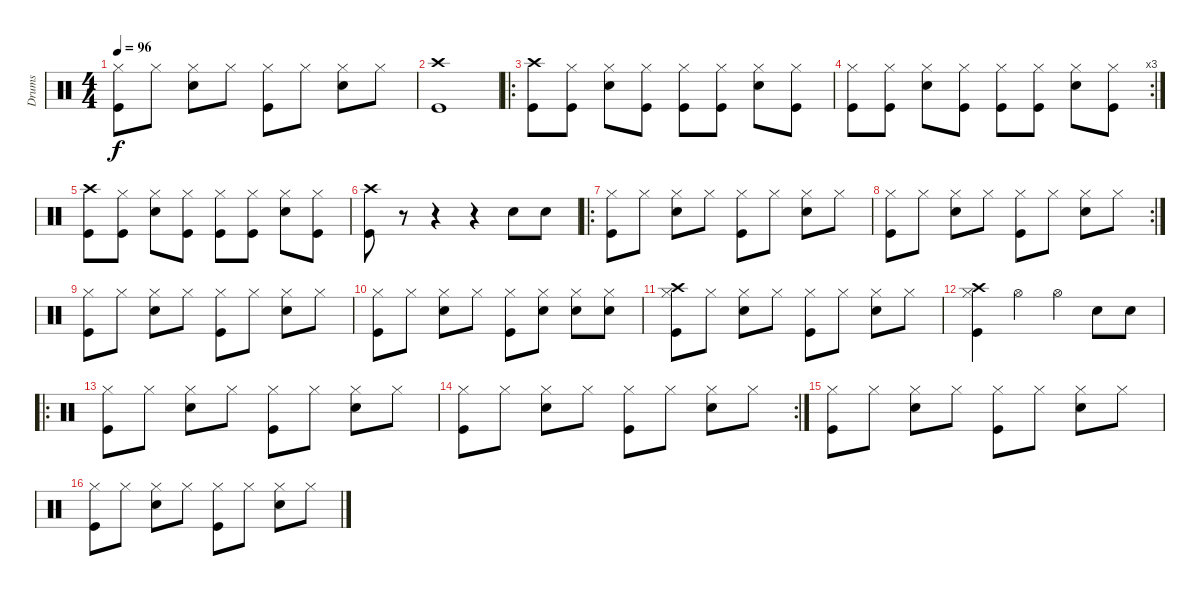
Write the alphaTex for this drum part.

\track ("Drums" "Drums") {instrument percussion}
\staff {score}
\articulation defaults
\ts (4 4)
\tempo 96
\clef neutral
\ks c
("Hi-Hat (closed)" "Kick (hit)").8{dy f} "Hi-Hat (closed)".8 ("Snare (hit) 2" "Hi-Hat (closed)").8 "Hi-Hat (closed)".8 ("Hi-Hat (closed)" "Kick (hit)").8 "Hi-Hat (closed)".8 ("Snare (hit) 2" "Hi-Hat (closed)").8 "Hi-Hat (closed)".8 |
("Crash high (hit)" "Kick (hit)").1 |
\ro
("Crash high (hit)" "Kick (hit)").8 ("Hi-Hat (closed)" "Kick (hit)").8 ("Electric Snare (hit)" "Hi-Hat (closed)").8 ("Hi-Hat (closed)" "Kick (hit)").8 ("Hi-Hat (closed)" "Kick (hit)").8 ("Hi-Hat (closed)" "Kick (hit)").8 ("Electric Snare (hit)" "Hi-Hat (closed)").8 ("Hi-Hat (closed)" "Kick (hit)").8 |
\rc 3
("Hi-Hat (closed)" "Kick (hit)").8 ("Hi-Hat (closed)" "Kick (hit)").8 ("Electric Snare (hit)" "Hi-Hat (closed)").8 ("Hi-Hat (closed)" "Kick (hit)").8 ("Hi-Hat (closed)" "Kick (hit)").8 ("Hi-Hat (closed)" "Kick (hit)").8 ("Electric Snare (hit)" "Hi-Hat (closed)").8 ("Hi-Hat (closed)" "Kick (hit)").8 |
("Crash high (hit)" "Kick (hit)").8 ("Hi-Hat (closed)" "Kick (hit)").8 ("Electric Snare (hit)" "Hi-Hat (closed)").8 ("Hi-Hat (closed)" "Kick (hit)").8 ("Hi-Hat (closed)" "Kick (hit)").8 ("Hi-Hat (closed)" "Kick (hit)").8 ("Electric Snare (hit)" "Hi-Hat (closed)").8 ("Hi-Hat (closed)" "Kick (hit)").8 |
("Crash high (hit)" "Kick (hit)").8 r.8 r.4 r.4 "Electric Snare (hit)".8 "Snare (hit) 2".8 |
\ro
("Hi-Hat (closed)" "Kick (hit)").8 "Hi-Hat (closed)".8 ("Snare (hit) 2" "Hi-Hat (closed)").8 "Hi-Hat (closed)".8 ("Hi-Hat (closed)" "Kick (hit)").8 "Hi-Hat (closed)".8 ("Snare (hit) 2" "Hi-Hat (closed)").8 "Hi-Hat (closed)".8 |
\rc 2
("Hi-Hat (closed)" "Kick (hit)").8 "Hi-Hat (closed)".8 ("Snare (hit) 2" "Hi-Hat (closed)").8 "Hi-Hat (closed)".8 ("Hi-Hat (closed)" "Kick (hit)").8 "Hi-Hat (closed)".8 ("Snare (hit) 2" "Hi-Hat (closed)").8 "Hi-Hat (closed)".8 |
("Hi-Hat (closed)" "Kick (hit)").8 "Hi-Hat (closed)".8 ("Snare (hit) 2" "Hi-Hat (closed)").8 "Hi-Hat (closed)".8 ("Hi-Hat (closed)" "Kick (hit)").8 "Hi-Hat (closed)".8 ("Snare (hit) 2" "Hi-Hat (closed)").8 "Hi-Hat (closed)".8 |
("Hi-Hat (closed)" "Kick (hit)").8 "Hi-Hat (closed)".8 ("Snare (hit) 2" "Hi-Hat (closed)").8 "Hi-Hat (closed)".8 ("Hi-Hat (closed)" "Kick (hit)").8 ("Snare (hit) 2" "Hi-Hat (closed)").8 ("Snare (hit) 2" "Hi-Hat (closed)").8 ("Snare (hit) 2" "Hi-Hat (closed)").8 |
("Crash high (hit)" "Hi-Hat (closed)" "Kick (hit)").8 "Hi-Hat (closed)".8 ("Snare (hit) 2" "Hi-Hat (closed)").8 "Hi-Hat (closed)".8 ("Hi-Hat (closed)" "Kick (hit)").8 "Hi-Hat (closed)".8 ("Snare (hit) 2" "Hi-Hat (closed)").8 "Hi-Hat (closed)".8 |
("Crash high (hit)" "Hi-Hat (closed)" "Kick (hit)").4 "Hi-Hat (open)".4 "Hi-Hat (open)".4 "Electric Snare (hit)".8 "Snare (hit) 2".8 |
\ro
("Hi-Hat (closed)" "Kick (hit)").8 "Hi-Hat (closed)".8 ("Snare (hit) 2" "Hi-Hat (closed)").8 "Hi-Hat (closed)".8 ("Hi-Hat (closed)" "Kick (hit)").8 "Hi-Hat (closed)".8 ("Snare (hit) 2" "Hi-Hat (closed)").8 "Hi-Hat (closed)".8 |
\rc 2
("Hi-Hat (closed)" "Kick (hit)").8 "Hi-Hat (closed)".8 ("Snare (hit) 2" "Hi-Hat (closed)").8 "Hi-Hat (closed)".8 ("Hi-Hat (closed)" "Kick (hit)").8 "Hi-Hat (closed)".8 ("Snare (hit) 2" "Hi-Hat (closed)").8 "Hi-Hat (closed)".8 |
("Hi-Hat (closed)" "Kick (hit)").8 "Hi-Hat (closed)".8 ("Snare (hit) 2" "Hi-Hat (closed)").8 "Hi-Hat (closed)".8 ("Hi-Hat (closed)" "Kick (hit)").8 "Hi-Hat (closed)".8 ("Snare (hit) 2" "Hi-Hat (closed)").8 "Hi-Hat (closed)".8 |
("Hi-Hat (closed)" "Kick (hit)").8 "Hi-Hat (closed)".8 ("Snare (hit) 2" "Hi-Hat (closed)").8 "Hi-Hat (closed)".8 ("Hi-Hat (closed)" "Kick (hit)").8 "Hi-Hat (closed)".8 ("Snare (hit) 2" "Hi-Hat (closed)").8 "Hi-Hat (closed)".8
